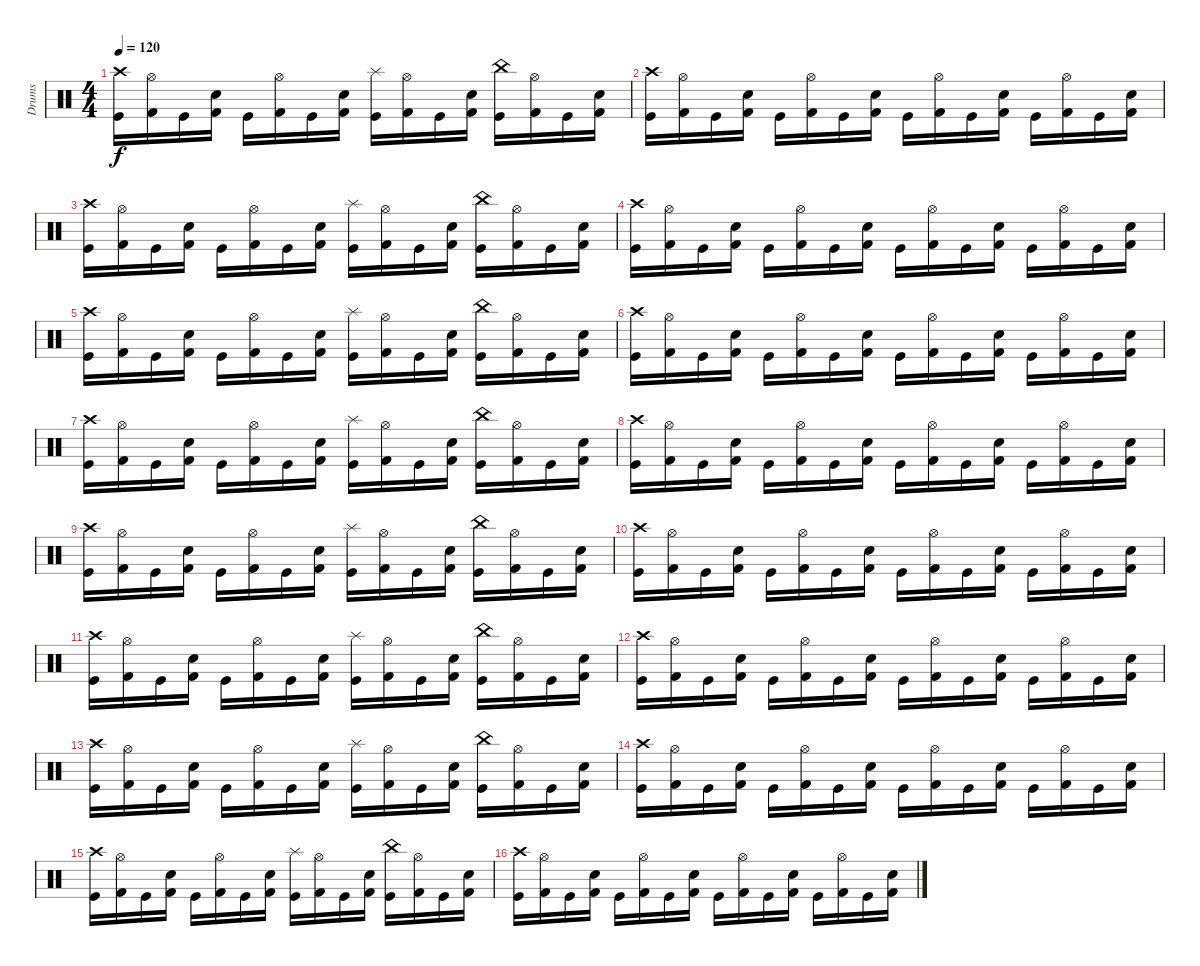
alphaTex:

\track ("Drums" "Drums") {instrument percussion}
\staff {score}
\articulation defaults
\ts (4 4)
\tempo 120
\clef neutral
\ks c
("Crash high (hit)" "Kick (hit)").16{dy f} ("Hi-Hat (open)" "Kick (hit) 2").16 "Kick (hit)".16 ("Electric Snare (hit)" "Kick (hit) 2").16 "Kick (hit)".16 ("Hi-Hat (open)" "Kick (hit) 2").16 "Kick (hit)".16 ("Electric Snare (hit)" "Kick (hit) 2").16 ("Splash (hit)" "Kick (hit)").16 ("Hi-Hat (open)" "Kick (hit) 2").16 "Kick (hit)".16 ("Electric Snare (hit)" "Kick (hit) 2").16 ("China (hit)" "Kick (hit)").16 ("Hi-Hat (open)" "Kick (hit) 2").16 "Kick (hit)".16 ("Electric Snare (hit)" "Kick (hit) 2").16 |
("Crash high (hit)" "Kick (hit)").16 ("Hi-Hat (open)" "Kick (hit) 2").16 "Kick (hit)".16 ("Electric Snare (hit)" "Kick (hit) 2").16 "Kick (hit)".16 ("Hi-Hat (open)" "Kick (hit) 2").16 "Kick (hit)".16 ("Electric Snare (hit)" "Kick (hit) 2").16 "Kick (hit)".16 ("Hi-Hat (open)" "Kick (hit) 2").16 "Kick (hit)".16 ("Electric Snare (hit)" "Kick (hit) 2").16 "Kick (hit)".16 ("Hi-Hat (open)" "Kick (hit) 2").16 "Kick (hit)".16 ("Electric Snare (hit)" "Kick (hit) 2").16 |
("Crash high (hit)" "Kick (hit)").16 ("Hi-Hat (open)" "Kick (hit) 2").16 "Kick (hit)".16 ("Electric Snare (hit)" "Kick (hit) 2").16 "Kick (hit)".16 ("Hi-Hat (open)" "Kick (hit) 2").16 "Kick (hit)".16 ("Electric Snare (hit)" "Kick (hit) 2").16 ("Splash (hit)" "Kick (hit)").16 ("Hi-Hat (open)" "Kick (hit) 2").16 "Kick (hit)".16 ("Electric Snare (hit)" "Kick (hit) 2").16 ("China (hit)" "Kick (hit)").16 ("Hi-Hat (open)" "Kick (hit) 2").16 "Kick (hit)".16 ("Electric Snare (hit)" "Kick (hit) 2").16 |
("Crash high (hit)" "Kick (hit)").16 ("Hi-Hat (open)" "Kick (hit) 2").16 "Kick (hit)".16 ("Electric Snare (hit)" "Kick (hit) 2").16 "Kick (hit)".16 ("Hi-Hat (open)" "Kick (hit) 2").16 "Kick (hit)".16 ("Electric Snare (hit)" "Kick (hit) 2").16 "Kick (hit)".16 ("Hi-Hat (open)" "Kick (hit) 2").16 "Kick (hit)".16 ("Electric Snare (hit)" "Kick (hit) 2").16 "Kick (hit)".16 ("Hi-Hat (open)" "Kick (hit) 2").16 "Kick (hit)".16 ("Electric Snare (hit)" "Kick (hit) 2").16 |
("Crash high (hit)" "Kick (hit)").16 ("Hi-Hat (open)" "Kick (hit) 2").16 "Kick (hit)".16 ("Electric Snare (hit)" "Kick (hit) 2").16 "Kick (hit)".16 ("Hi-Hat (open)" "Kick (hit) 2").16 "Kick (hit)".16 ("Electric Snare (hit)" "Kick (hit) 2").16 ("Splash (hit)" "Kick (hit)").16 ("Hi-Hat (open)" "Kick (hit) 2").16 "Kick (hit)".16 ("Electric Snare (hit)" "Kick (hit) 2").16 ("China (hit)" "Kick (hit)").16 ("Hi-Hat (open)" "Kick (hit) 2").16 "Kick (hit)".16 ("Electric Snare (hit)" "Kick (hit) 2").16 |
("Crash high (hit)" "Kick (hit)").16 ("Hi-Hat (open)" "Kick (hit) 2").16 "Kick (hit)".16 ("Electric Snare (hit)" "Kick (hit) 2").16 "Kick (hit)".16 ("Hi-Hat (open)" "Kick (hit) 2").16 "Kick (hit)".16 ("Electric Snare (hit)" "Kick (hit) 2").16 "Kick (hit)".16 ("Hi-Hat (open)" "Kick (hit) 2").16 "Kick (hit)".16 ("Electric Snare (hit)" "Kick (hit) 2").16 "Kick (hit)".16 ("Hi-Hat (open)" "Kick (hit) 2").16 "Kick (hit)".16 ("Electric Snare (hit)" "Kick (hit) 2").16 |
("Crash high (hit)" "Kick (hit)").16 ("Hi-Hat (open)" "Kick (hit) 2").16 "Kick (hit)".16 ("Electric Snare (hit)" "Kick (hit) 2").16 "Kick (hit)".16 ("Hi-Hat (open)" "Kick (hit) 2").16 "Kick (hit)".16 ("Electric Snare (hit)" "Kick (hit) 2").16 ("Splash (hit)" "Kick (hit)").16 ("Hi-Hat (open)" "Kick (hit) 2").16 "Kick (hit)".16 ("Electric Snare (hit)" "Kick (hit) 2").16 ("China (hit)" "Kick (hit)").16 ("Hi-Hat (open)" "Kick (hit) 2").16 "Kick (hit)".16 ("Electric Snare (hit)" "Kick (hit) 2").16 |
("Crash high (hit)" "Kick (hit)").16 ("Hi-Hat (open)" "Kick (hit) 2").16 "Kick (hit)".16 ("Electric Snare (hit)" "Kick (hit) 2").16 "Kick (hit)".16 ("Hi-Hat (open)" "Kick (hit) 2").16 "Kick (hit)".16 ("Electric Snare (hit)" "Kick (hit) 2").16 "Kick (hit)".16 ("Hi-Hat (open)" "Kick (hit) 2").16 "Kick (hit)".16 ("Electric Snare (hit)" "Kick (hit) 2").16 "Kick (hit)".16 ("Hi-Hat (open)" "Kick (hit) 2").16 "Kick (hit)".16 ("Electric Snare (hit)" "Kick (hit) 2").16 |
("Crash high (hit)" "Kick (hit)").16 ("Hi-Hat (open)" "Kick (hit) 2").16 "Kick (hit)".16 ("Electric Snare (hit)" "Kick (hit) 2").16 "Kick (hit)".16 ("Hi-Hat (open)" "Kick (hit) 2").16 "Kick (hit)".16 ("Electric Snare (hit)" "Kick (hit) 2").16 ("Splash (hit)" "Kick (hit)").16 ("Hi-Hat (open)" "Kick (hit) 2").16 "Kick (hit)".16 ("Electric Snare (hit)" "Kick (hit) 2").16 ("China (hit)" "Kick (hit)").16 ("Hi-Hat (open)" "Kick (hit) 2").16 "Kick (hit)".16 ("Electric Snare (hit)" "Kick (hit) 2").16 |
("Crash high (hit)" "Kick (hit)").16 ("Hi-Hat (open)" "Kick (hit) 2").16 "Kick (hit)".16 ("Electric Snare (hit)" "Kick (hit) 2").16 "Kick (hit)".16 ("Hi-Hat (open)" "Kick (hit) 2").16 "Kick (hit)".16 ("Electric Snare (hit)" "Kick (hit) 2").16 "Kick (hit)".16 ("Hi-Hat (open)" "Kick (hit) 2").16 "Kick (hit)".16 ("Electric Snare (hit)" "Kick (hit) 2").16 "Kick (hit)".16 ("Hi-Hat (open)" "Kick (hit) 2").16 "Kick (hit)".16 ("Electric Snare (hit)" "Kick (hit) 2").16 |
("Crash high (hit)" "Kick (hit)").16 ("Hi-Hat (open)" "Kick (hit) 2").16 "Kick (hit)".16 ("Electric Snare (hit)" "Kick (hit) 2").16 "Kick (hit)".16 ("Hi-Hat (open)" "Kick (hit) 2").16 "Kick (hit)".16 ("Electric Snare (hit)" "Kick (hit) 2").16 ("Splash (hit)" "Kick (hit)").16 ("Hi-Hat (open)" "Kick (hit) 2").16 "Kick (hit)".16 ("Electric Snare (hit)" "Kick (hit) 2").16 ("China (hit)" "Kick (hit)").16 ("Hi-Hat (open)" "Kick (hit) 2").16 "Kick (hit)".16 ("Electric Snare (hit)" "Kick (hit) 2").16 |
("Crash high (hit)" "Kick (hit)").16 ("Hi-Hat (open)" "Kick (hit) 2").16 "Kick (hit)".16 ("Electric Snare (hit)" "Kick (hit) 2").16 "Kick (hit)".16 ("Hi-Hat (open)" "Kick (hit) 2").16 "Kick (hit)".16 ("Electric Snare (hit)" "Kick (hit) 2").16 "Kick (hit)".16 ("Hi-Hat (open)" "Kick (hit) 2").16 "Kick (hit)".16 ("Electric Snare (hit)" "Kick (hit) 2").16 "Kick (hit)".16 ("Hi-Hat (open)" "Kick (hit) 2").16 "Kick (hit)".16 ("Electric Snare (hit)" "Kick (hit) 2").16 |
("Crash high (hit)" "Kick (hit)").16 ("Hi-Hat (open)" "Kick (hit) 2").16 "Kick (hit)".16 ("Electric Snare (hit)" "Kick (hit) 2").16 "Kick (hit)".16 ("Hi-Hat (open)" "Kick (hit) 2").16 "Kick (hit)".16 ("Electric Snare (hit)" "Kick (hit) 2").16 ("Splash (hit)" "Kick (hit)").16 ("Hi-Hat (open)" "Kick (hit) 2").16 "Kick (hit)".16 ("Electric Snare (hit)" "Kick (hit) 2").16 ("China (hit)" "Kick (hit)").16 ("Hi-Hat (open)" "Kick (hit) 2").16 "Kick (hit)".16 ("Electric Snare (hit)" "Kick (hit) 2").16 |
("Crash high (hit)" "Kick (hit)").16 ("Hi-Hat (open)" "Kick (hit) 2").16 "Kick (hit)".16 ("Electric Snare (hit)" "Kick (hit) 2").16 "Kick (hit)".16 ("Hi-Hat (open)" "Kick (hit) 2").16 "Kick (hit)".16 ("Electric Snare (hit)" "Kick (hit) 2").16 "Kick (hit)".16 ("Hi-Hat (open)" "Kick (hit) 2").16 "Kick (hit)".16 ("Electric Snare (hit)" "Kick (hit) 2").16 "Kick (hit)".16 ("Hi-Hat (open)" "Kick (hit) 2").16 "Kick (hit)".16 ("Electric Snare (hit)" "Kick (hit) 2").16 |
("Crash high (hit)" "Kick (hit)").16 ("Hi-Hat (open)" "Kick (hit) 2").16 "Kick (hit)".16 ("Electric Snare (hit)" "Kick (hit) 2").16 "Kick (hit)".16 ("Hi-Hat (open)" "Kick (hit) 2").16 "Kick (hit)".16 ("Electric Snare (hit)" "Kick (hit) 2").16 ("Splash (hit)" "Kick (hit)").16 ("Hi-Hat (open)" "Kick (hit) 2").16 "Kick (hit)".16 ("Electric Snare (hit)" "Kick (hit) 2").16 ("China (hit)" "Kick (hit)").16 ("Hi-Hat (open)" "Kick (hit) 2").16 "Kick (hit)".16 ("Electric Snare (hit)" "Kick (hit) 2").16 |
("Crash high (hit)" "Kick (hit)").16 ("Hi-Hat (open)" "Kick (hit) 2").16 "Kick (hit)".16 ("Electric Snare (hit)" "Kick (hit) 2").16 "Kick (hit)".16 ("Hi-Hat (open)" "Kick (hit) 2").16 "Kick (hit)".16 ("Electric Snare (hit)" "Kick (hit) 2").16 "Kick (hit)".16 ("Hi-Hat (open)" "Kick (hit) 2").16 "Kick (hit)".16 ("Electric Snare (hit)" "Kick (hit) 2").16 "Kick (hit)".16 ("Hi-Hat (open)" "Kick (hit) 2").16 "Kick (hit)".16 ("Electric Snare (hit)" "Kick (hit) 2").16
